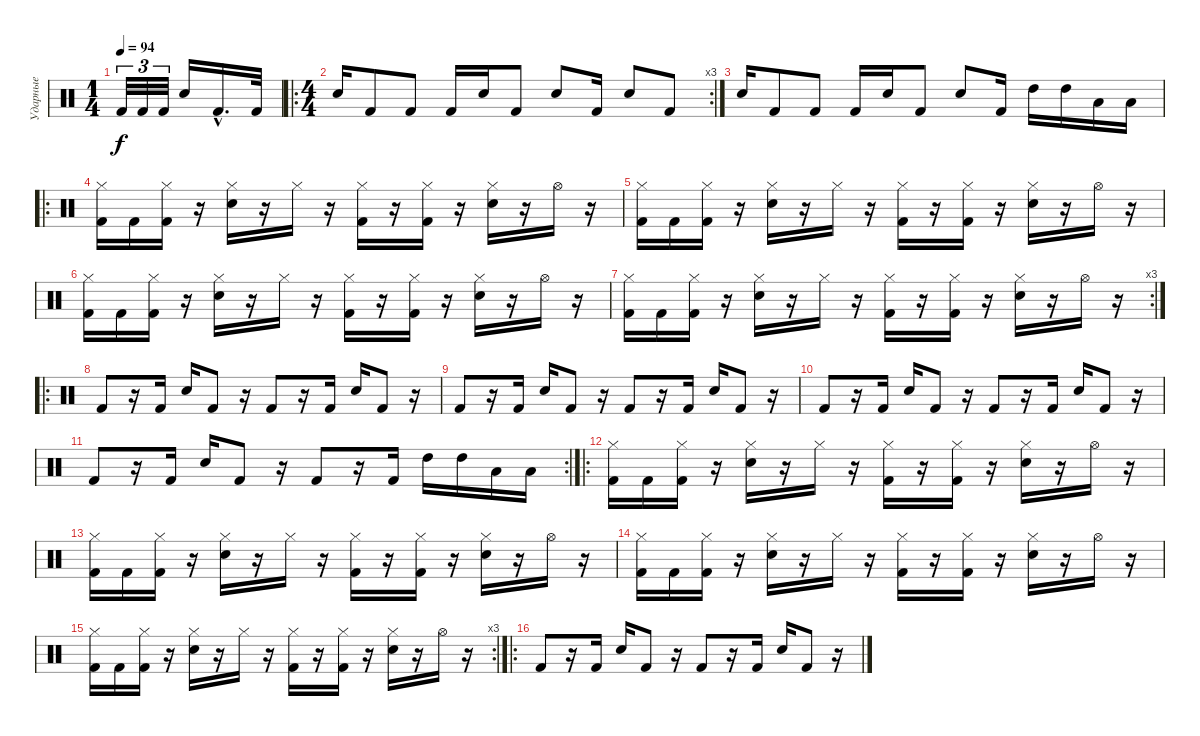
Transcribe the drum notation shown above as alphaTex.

\track ("Ударные" "Ударные") {instrument percussion}
\staff {score}
\articulation defaults
\ts (1 4)
\tempo 94
\clef neutral
\ks c "Kick (hit) 2".32{tu (3 2) dy f} "Kick (hit) 2".32{tu (3 2)} "Kick (hit) 2".32{tu (3 2)} "Electric Snare (hit)".16 "Kick (hit) 2"{hac}.16{d} "Kick (hit) 2".32
|
\ro
\rc 3
\ts (4 4)
"Electric Snare (hit)".16 "Kick (hit) 2".8 "Kick (hit) 2".8 "Kick (hit) 2".16 "Electric Snare (hit)".16 "Kick (hit) 2".8 "Electric Snare (hit)".8 "Kick (hit) 2".16 "Electric Snare (hit)".8 "Kick (hit) 2".8 |
"Electric Snare (hit)".16 "Kick (hit) 2".8 "Kick (hit) 2".8 "Kick (hit) 2".16 "Electric Snare (hit)".16 "Kick (hit) 2".8 "Electric Snare (hit)".8 "Kick (hit) 2".16 "High Tom (hit)".16 "High Tom (hit)".16 "Low Tom (hit)".16 "Low Tom (hit)".16 |
\ro
("Hi-Hat (closed)" "Kick (hit) 2").16 "Kick (hit) 2".16 ("Hi-Hat (closed)" "Kick (hit) 2").16 r.16 ("Hi-Hat (closed)" "Electric Snare (hit)").16 r.16 "Hi-Hat (closed)".16 r.16 ("Hi-Hat (closed)" "Kick (hit) 2").16 r.16 ("Hi-Hat (closed)" "Kick (hit) 2").16 r.16 ("Hi-Hat (closed)" "Electric Snare (hit)").16 r.16 "Hi-Hat (open)".16 r.16 |
("Hi-Hat (closed)" "Kick (hit) 2").16 "Kick (hit) 2".16 ("Hi-Hat (closed)" "Kick (hit) 2").16 r.16 ("Hi-Hat (closed)" "Electric Snare (hit)").16 r.16 "Hi-Hat (closed)".16 r.16 ("Hi-Hat (closed)" "Kick (hit) 2").16 r.16 ("Hi-Hat (closed)" "Kick (hit) 2").16 r.16 ("Hi-Hat (closed)" "Electric Snare (hit)").16 r.16 "Hi-Hat (open)".16 r.16 |
("Hi-Hat (closed)" "Kick (hit) 2").16 "Kick (hit) 2".16 ("Hi-Hat (closed)" "Kick (hit) 2").16 r.16 ("Hi-Hat (closed)" "Electric Snare (hit)").16 r.16 "Hi-Hat (closed)".16 r.16 ("Hi-Hat (closed)" "Kick (hit) 2").16 r.16 ("Hi-Hat (closed)" "Kick (hit) 2").16 r.16 ("Hi-Hat (closed)" "Electric Snare (hit)").16 r.16 "Hi-Hat (open)".16 r.16 |
\rc 3
("Hi-Hat (closed)" "Kick (hit) 2").16 "Kick (hit) 2".16 ("Hi-Hat (closed)" "Kick (hit) 2").16 r.16 ("Hi-Hat (closed)" "Electric Snare (hit)").16 r.16 "Hi-Hat (closed)".16 r.16 ("Hi-Hat (closed)" "Kick (hit) 2").16 r.16 ("Hi-Hat (closed)" "Kick (hit) 2").16 r.16 ("Hi-Hat (closed)" "Electric Snare (hit)").16 r.16 "Hi-Hat (open)".16 r.16 |
\ro "Kick (hit) 2".8
r.16 "Kick (hit) 2".16 "Electric Snare (hit)".16 "Kick (hit) 2".8 r.16 "Kick (hit) 2".8 r.16 "Kick (hit) 2".16 "Electric Snare (hit)".16 "Kick (hit) 2".8 r.16 |
"Kick (hit) 2".8 r.16 "Kick (hit) 2".16 "Electric Snare (hit)".16 "Kick (hit) 2".8 r.16 "Kick (hit) 2".8 r.16 "Kick (hit) 2".16 "Electric Snare (hit)".16 "Kick (hit) 2".8 r.16 |
"Kick (hit) 2".8 r.16 "Kick (hit) 2".16 "Electric Snare (hit)".16 "Kick (hit) 2".8 r.16 "Kick (hit) 2".8 r.16 "Kick (hit) 2".16 "Electric Snare (hit)".16 "Kick (hit) 2".8 r.16 |
\rc 2 "Kick (hit) 2".8
r.16 "Kick (hit) 2".16 "Electric Snare (hit)".16 "Kick (hit) 2".8 r.16 "Kick (hit) 2".8 r.16 "Kick (hit) 2".16 "High Tom (hit)".16 "High Tom (hit)".16 "Low Tom (hit)".16 "Low Tom (hit)".16 |
\ro
("Hi-Hat (closed)" "Kick (hit) 2").16 "Kick (hit) 2".16 ("Hi-Hat (closed)" "Kick (hit) 2").16 r.16 ("Hi-Hat (closed)" "Electric Snare (hit)").16 r.16 "Hi-Hat (closed)".16 r.16 ("Hi-Hat (closed)" "Kick (hit) 2").16 r.16 ("Hi-Hat (closed)" "Kick (hit) 2").16 r.16 ("Hi-Hat (closed)" "Electric Snare (hit)").16 r.16 "Hi-Hat (open)".16 r.16 |
("Hi-Hat (closed)" "Kick (hit) 2").16 "Kick (hit) 2".16 ("Hi-Hat (closed)" "Kick (hit) 2").16 r.16 ("Hi-Hat (closed)" "Electric Snare (hit)").16 r.16 "Hi-Hat (closed)".16 r.16 ("Hi-Hat (closed)" "Kick (hit) 2").16 r.16 ("Hi-Hat (closed)" "Kick (hit) 2").16 r.16 ("Hi-Hat (closed)" "Electric Snare (hit)").16 r.16 "Hi-Hat (open)".16 r.16 |
("Hi-Hat (closed)" "Kick (hit) 2").16 "Kick (hit) 2".16 ("Hi-Hat (closed)" "Kick (hit) 2").16 r.16 ("Hi-Hat (closed)" "Electric Snare (hit)").16 r.16 "Hi-Hat (closed)".16 r.16 ("Hi-Hat (closed)" "Kick (hit) 2").16 r.16 ("Hi-Hat (closed)" "Kick (hit) 2").16 r.16 ("Hi-Hat (closed)" "Electric Snare (hit)").16 r.16 "Hi-Hat (open)".16 r.16 |
\rc 3
("Hi-Hat (closed)" "Kick (hit) 2").16 "Kick (hit) 2".16 ("Hi-Hat (closed)" "Kick (hit) 2").16 r.16 ("Hi-Hat (closed)" "Electric Snare (hit)").16 r.16 "Hi-Hat (closed)".16 r.16 ("Hi-Hat (closed)" "Kick (hit) 2").16 r.16 ("Hi-Hat (closed)" "Kick (hit) 2").16 r.16 ("Hi-Hat (closed)" "Electric Snare (hit)").16 r.16 "Hi-Hat (open)".16 r.16 |
\ro "Kick (hit) 2".8
r.16 "Kick (hit) 2".16 "Electric Snare (hit)".16 "Kick (hit) 2".8 r.16 "Kick (hit) 2".8 r.16 "Kick (hit) 2".16 "Electric Snare (hit)".16 "Kick (hit) 2".8 r.16
